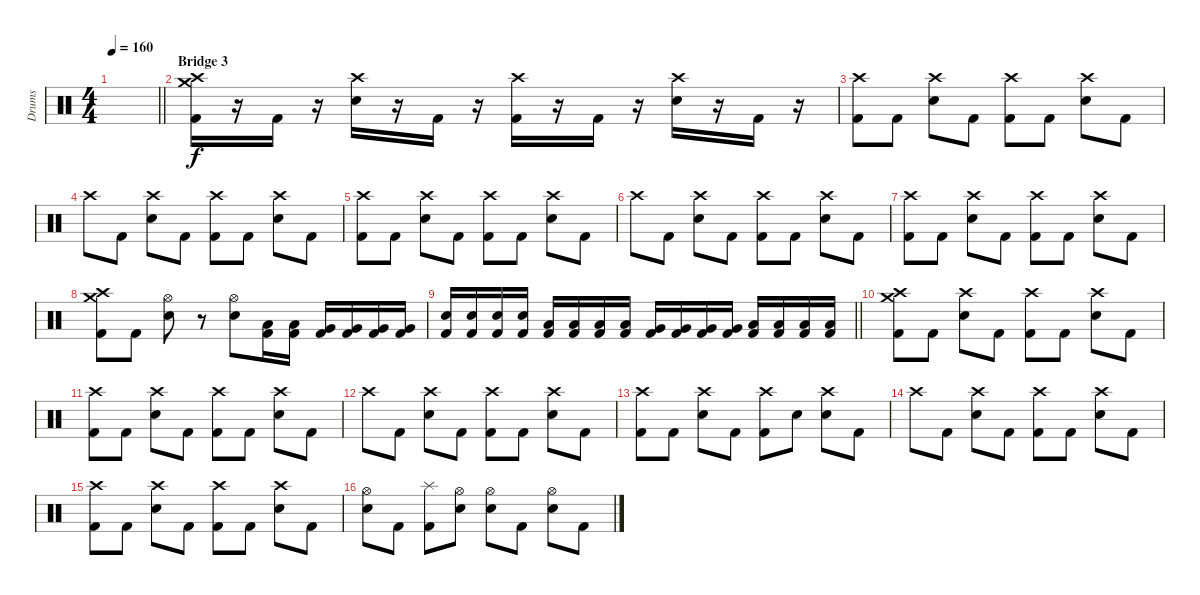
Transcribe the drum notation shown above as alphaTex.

\track ("Drums" "Drums") {instrument percussion}
\staff {score}
\articulation defaults
\ts (4 4)
\section ("" "")
\tempo 160
\clef neutral
\barLineRight lightlight
\ks c
|
\section ("" "Bridge 3")
("Crash high (hit)" "Crash medium (hit)" "Kick (hit) 2").16 r.16 "Kick (hit) 2".16 r.16 ("Crash high (hit)" "Electric Snare (hit)").16 r.16 "Kick (hit) 2".16 r.16 ("Crash high (hit)" "Kick (hit) 2").16 r.16 "Kick (hit) 2".16 r.16 ("Crash high (hit)" "Electric Snare (hit)").16 r.16 "Kick (hit) 2".16 r.16 |
("Crash high (hit)" "Kick (hit) 2").8 "Kick (hit) 2".8 ("Crash high (hit)" "Electric Snare (hit)").8 "Kick (hit) 2".8 ("Crash high (hit)" "Kick (hit) 2").8 "Kick (hit) 2".8 ("Crash high (hit)" "Electric Snare (hit)").8 "Kick (hit) 2".8 |
"Crash high (hit)".8 "Kick (hit) 2".8 ("Crash high (hit)" "Electric Snare (hit)").8 "Kick (hit) 2".8 ("Crash high (hit)" "Kick (hit) 2").8 "Kick (hit) 2".8 ("Crash high (hit)" "Electric Snare (hit)").8 "Kick (hit) 2".8 |
("Crash high (hit)" "Kick (hit) 2").8 "Kick (hit) 2".8 ("Crash high (hit)" "Electric Snare (hit)").8 "Kick (hit) 2".8 ("Crash high (hit)" "Kick (hit) 2").8 "Kick (hit) 2".8 ("Crash high (hit)" "Electric Snare (hit)").8 "Kick (hit) 2".8 |
"Crash high (hit)".8 "Kick (hit) 2".8 ("Crash high (hit)" "Electric Snare (hit)").8 "Kick (hit) 2".8 ("Crash high (hit)" "Kick (hit) 2").8 "Kick (hit) 2".8 ("Crash high (hit)" "Electric Snare (hit)").8 "Kick (hit) 2".8 |
("Crash high (hit)" "Kick (hit) 2").8 "Kick (hit) 2".8 ("Crash high (hit)" "Electric Snare (hit)").8 "Kick (hit) 2".8 ("Crash high (hit)" "Kick (hit) 2").8 "Kick (hit) 2".8 ("Crash high (hit)" "Electric Snare (hit)").8 "Kick (hit) 2".8 |
("Crash high (hit)" "Crash medium (hit)" "Kick (hit) 2").8 "Kick (hit) 2".8 ("Hi-Hat (open)" "Electric Snare (hit)").8 r.8 ("Hi-Hat (open)" "Electric Snare (hit)").8 ("Low Tom (hit)" "Kick (hit) 2").16 ("Low Tom (hit)" "Kick (hit) 2").16 ("Very Low Tom (hit)" "Kick (hit) 2").16 ("Very Low Tom (hit)" "Kick (hit) 2").16 ("Very Low Tom (hit)" "Kick (hit) 2").16 ("Very Low Tom (hit)" "Kick (hit) 2").16 |
\barLineRight lightlight
("Electric Snare (hit)" "Kick (hit) 2").16 ("Electric Snare (hit)" "Kick (hit) 2").16 ("Electric Snare (hit)" "Kick (hit) 2").16 ("Electric Snare (hit)" "Kick (hit) 2").16 ("Low Tom (hit)" "Kick (hit) 2").16 ("Low Tom (hit)" "Kick (hit) 2").16 ("Low Tom (hit)" "Kick (hit) 2").16 ("Low Tom (hit)" "Kick (hit) 2").16 ("Very Low Tom (hit)" "Kick (hit) 2").16 ("Very Low Tom (hit)" "Kick (hit) 2").16 ("Very Low Tom (hit)" "Kick (hit) 2").16 ("Very Low Tom (hit)" "Kick (hit) 2").16 ("Low Floor Tom (hit)" "Kick (hit) 2").16 ("Low Floor Tom (hit)" "Kick (hit) 2").16 ("Low Floor Tom (hit)" "Kick (hit) 2").16 ("Low Floor Tom (hit)" "Kick (hit) 2").16 |
\section ("" "")
("Crash high (hit)" "Crash medium (hit)" "Kick (hit) 2").8 "Kick (hit) 2".8 ("Crash high (hit)" "Electric Snare (hit)").8 "Kick (hit) 2".8 ("Crash high (hit)" "Kick (hit) 2").8 "Kick (hit) 2".8 ("Crash high (hit)" "Electric Snare (hit)").8 "Kick (hit) 2".8 |
("Crash high (hit)" "Kick (hit) 2").8 "Kick (hit) 2".8 ("Crash high (hit)" "Electric Snare (hit)").8 "Kick (hit) 2".8 ("Crash high (hit)" "Kick (hit) 2").8 "Kick (hit) 2".8 ("Crash high (hit)" "Electric Snare (hit)").8 "Kick (hit) 2".8 |
"Crash high (hit)".8 "Kick (hit) 2".8 ("Crash high (hit)" "Electric Snare (hit)").8 "Kick (hit) 2".8 ("Crash high (hit)" "Kick (hit) 2").8 "Kick (hit) 2".8 ("Crash high (hit)" "Electric Snare (hit)").8 "Kick (hit) 2".8 |
("Crash high (hit)" "Kick (hit) 2").8 "Kick (hit) 2".8 ("Crash high (hit)" "Electric Snare (hit)").8 "Kick (hit) 2".8 ("Crash high (hit)" "Kick (hit) 2").8 "Electric Snare (hit)".8 ("Crash high (hit)" "Electric Snare (hit)").8 "Kick (hit) 2".8 |
"Crash high (hit)".8 "Kick (hit) 2".8 ("Crash high (hit)" "Electric Snare (hit)").8 "Kick (hit) 2".8 ("Crash high (hit)" "Kick (hit) 2").8 "Kick (hit) 2".8 ("Crash high (hit)" "Electric Snare (hit)").8 "Kick (hit) 2".8 |
("Crash high (hit)" "Kick (hit) 2").8 "Kick (hit) 2".8 ("Crash high (hit)" "Electric Snare (hit)").8 "Kick (hit) 2".8 ("Crash high (hit)" "Kick (hit) 2").8 "Kick (hit) 2".8 ("Crash high (hit)" "Electric Snare (hit)").8 "Kick (hit) 2".8 |
("Hi-Hat (open)" "Electric Snare (hit)").8 "Kick (hit) 2".8 ("Splash (hit)" "Kick (hit) 2").8 ("Hi-Hat (open)" "Electric Snare (hit)").8 ("Hi-Hat (open)" "Electric Snare (hit)").8 "Kick (hit) 2".8 ("Hi-Hat (open)" "Electric Snare (hit)").8 "Kick (hit) 2".8
